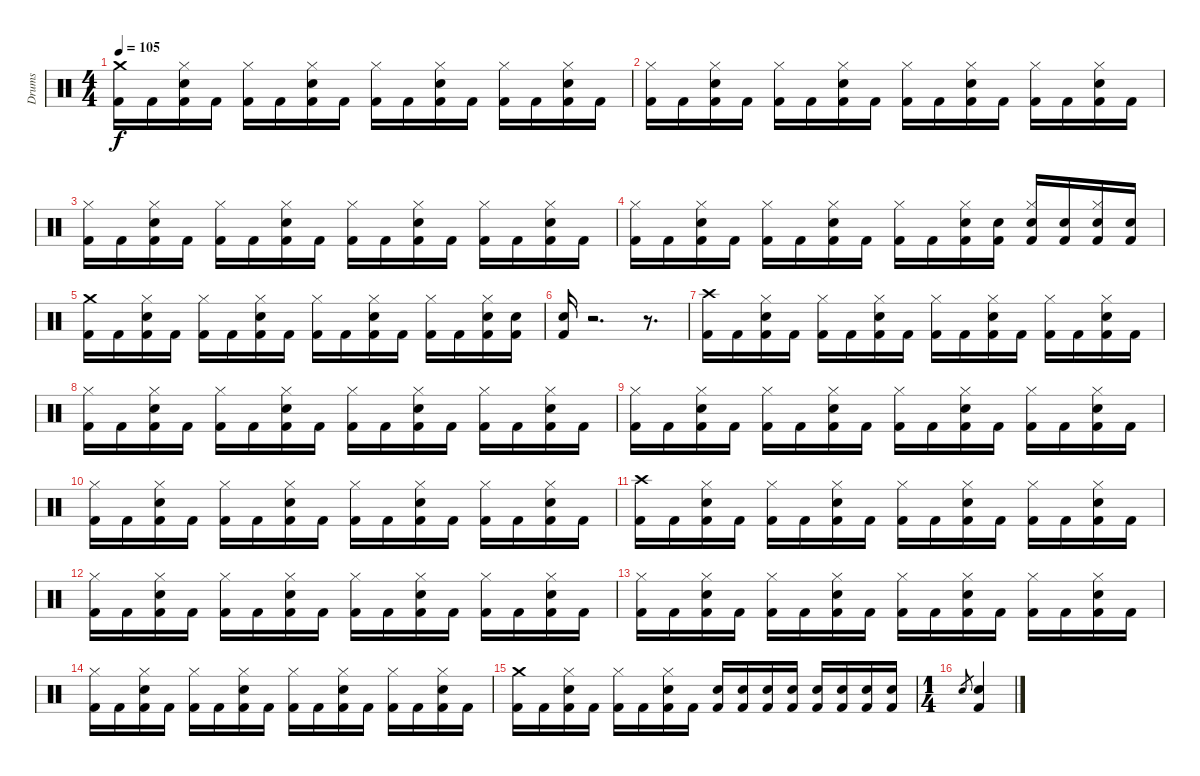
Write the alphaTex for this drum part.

\track ("Drums" "Drums") {instrument percussion}
\staff {score}
\articulation defaults
\ts (4 4)
\tempo 105
\clef neutral
\ks c
("Crash medium (hit)" "Kick (hit) 2").16{dy f} "Kick (hit) 2".16 ("Hi-Hat (closed)" "Electric Snare (hit)" "Kick (hit) 2").16 "Kick (hit) 2".16 ("Hi-Hat (closed)" "Kick (hit) 2").16 "Kick (hit) 2".16 ("Hi-Hat (closed)" "Electric Snare (hit)" "Kick (hit) 2").16 "Kick (hit) 2".16 ("Hi-Hat (closed)" "Kick (hit) 2").16 "Kick (hit) 2".16 ("Hi-Hat (closed)" "Electric Snare (hit)" "Kick (hit) 2").16 "Kick (hit) 2".16 ("Hi-Hat (closed)" "Kick (hit) 2").16 "Kick (hit) 2".16 ("Hi-Hat (closed)" "Electric Snare (hit)" "Kick (hit) 2").16 "Kick (hit) 2".16 |
("Hi-Hat (closed)" "Kick (hit) 2").16 "Kick (hit) 2".16 ("Hi-Hat (closed)" "Electric Snare (hit)" "Kick (hit) 2").16 "Kick (hit) 2".16 ("Hi-Hat (closed)" "Kick (hit) 2").16 "Kick (hit) 2".16 ("Hi-Hat (closed)" "Electric Snare (hit)" "Kick (hit) 2").16 "Kick (hit) 2".16 ("Hi-Hat (closed)" "Kick (hit) 2").16 "Kick (hit) 2".16 ("Hi-Hat (closed)" "Electric Snare (hit)" "Kick (hit) 2").16 "Kick (hit) 2".16 ("Hi-Hat (closed)" "Kick (hit) 2").16 "Kick (hit) 2".16 ("Hi-Hat (closed)" "Electric Snare (hit)" "Kick (hit) 2").16 "Kick (hit) 2".16 |
("Hi-Hat (closed)" "Kick (hit) 2").16 "Kick (hit) 2".16 ("Hi-Hat (closed)" "Electric Snare (hit)" "Kick (hit) 2").16 "Kick (hit) 2".16 ("Hi-Hat (closed)" "Kick (hit) 2").16 "Kick (hit) 2".16 ("Hi-Hat (closed)" "Electric Snare (hit)" "Kick (hit) 2").16 "Kick (hit) 2".16 ("Hi-Hat (closed)" "Kick (hit) 2").16 "Kick (hit) 2".16 ("Hi-Hat (closed)" "Electric Snare (hit)" "Kick (hit) 2").16 "Kick (hit) 2".16 ("Hi-Hat (closed)" "Kick (hit) 2").16 "Kick (hit) 2".16 ("Hi-Hat (closed)" "Electric Snare (hit)" "Kick (hit) 2").16 "Kick (hit) 2".16 |
("Hi-Hat (closed)" "Kick (hit) 2").16 "Kick (hit) 2".16 ("Hi-Hat (closed)" "Electric Snare (hit)" "Kick (hit) 2").16 "Kick (hit) 2".16 ("Hi-Hat (closed)" "Kick (hit) 2").16 "Kick (hit) 2".16 ("Hi-Hat (closed)" "Electric Snare (hit)" "Kick (hit) 2").16 "Kick (hit) 2".16 ("Hi-Hat (closed)" "Kick (hit) 2").16 "Kick (hit) 2".16 ("Hi-Hat (closed)" "Electric Snare (hit)" "Kick (hit) 2").16 ("Electric Snare (hit)" "Kick (hit) 2").16 ("Hi-Hat (closed)" "Electric Snare (hit)" "Kick (hit) 2").16 ("Electric Snare (hit)" "Kick (hit) 2").16 ("Hi-Hat (closed)" "Electric Snare (hit)" "Kick (hit) 2").16 ("Electric Snare (hit)" "Kick (hit) 2").16 |
("Crash medium (hit)" "Kick (hit) 2").16 "Kick (hit) 2".16 ("Hi-Hat (closed)" "Electric Snare (hit)" "Kick (hit) 2").16 "Kick (hit) 2".16 ("Hi-Hat (closed)" "Kick (hit) 2").16 "Kick (hit) 2".16 ("Hi-Hat (closed)" "Electric Snare (hit)" "Kick (hit) 2").16 "Kick (hit) 2".16 ("Hi-Hat (closed)" "Kick (hit) 2").16 "Kick (hit) 2".16 ("Hi-Hat (closed)" "Electric Snare (hit)" "Kick (hit) 2").16 "Kick (hit) 2".16 ("Hi-Hat (closed)" "Kick (hit) 2").16 "Kick (hit) 2".16 ("Hi-Hat (closed)" "Electric Snare (hit)" "Kick (hit) 2").16 ("Electric Snare (hit)" "Kick (hit) 2").16 |
("Electric Snare (hit)" "Kick (hit) 2").16 r.2{d} r.8{d} |
("Crash high (hit)" "Kick (hit) 2").16 "Kick (hit) 2".16 ("Hi-Hat (closed)" "Electric Snare (hit)" "Kick (hit) 2").16 "Kick (hit) 2".16 ("Hi-Hat (closed)" "Kick (hit) 2").16 "Kick (hit) 2".16 ("Hi-Hat (closed)" "Electric Snare (hit)" "Kick (hit) 2").16 "Kick (hit) 2".16 ("Hi-Hat (closed)" "Kick (hit) 2").16 "Kick (hit) 2".16 ("Hi-Hat (closed)" "Electric Snare (hit)" "Kick (hit) 2").16 "Kick (hit) 2".16 ("Hi-Hat (closed)" "Kick (hit) 2").16 "Kick (hit) 2".16 ("Hi-Hat (closed)" "Electric Snare (hit)" "Kick (hit) 2").16 "Kick (hit) 2".16 |
("Hi-Hat (closed)" "Kick (hit) 2").16 "Kick (hit) 2".16 ("Hi-Hat (closed)" "Electric Snare (hit)" "Kick (hit) 2").16 "Kick (hit) 2".16 ("Hi-Hat (closed)" "Kick (hit) 2").16 "Kick (hit) 2".16 ("Hi-Hat (closed)" "Electric Snare (hit)" "Kick (hit) 2").16 "Kick (hit) 2".16 ("Hi-Hat (closed)" "Kick (hit) 2").16 "Kick (hit) 2".16 ("Hi-Hat (closed)" "Electric Snare (hit)" "Kick (hit) 2").16 "Kick (hit) 2".16 ("Hi-Hat (closed)" "Kick (hit) 2").16 "Kick (hit) 2".16 ("Hi-Hat (closed)" "Electric Snare (hit)" "Kick (hit) 2").16 "Kick (hit) 2".16 |
("Hi-Hat (closed)" "Kick (hit) 2").16 "Kick (hit) 2".16 ("Hi-Hat (closed)" "Electric Snare (hit)" "Kick (hit) 2").16 "Kick (hit) 2".16 ("Hi-Hat (closed)" "Kick (hit) 2").16 "Kick (hit) 2".16 ("Hi-Hat (closed)" "Electric Snare (hit)" "Kick (hit) 2").16 "Kick (hit) 2".16 ("Hi-Hat (closed)" "Kick (hit) 2").16 "Kick (hit) 2".16 ("Hi-Hat (closed)" "Electric Snare (hit)" "Kick (hit) 2").16 "Kick (hit) 2".16 ("Hi-Hat (closed)" "Kick (hit) 2").16 "Kick (hit) 2".16 ("Hi-Hat (closed)" "Electric Snare (hit)" "Kick (hit) 2").16 "Kick (hit) 2".16 |
("Hi-Hat (closed)" "Kick (hit) 2").16 "Kick (hit) 2".16 ("Hi-Hat (closed)" "Electric Snare (hit)" "Kick (hit) 2").16 "Kick (hit) 2".16 ("Hi-Hat (closed)" "Kick (hit) 2").16 "Kick (hit) 2".16 ("Hi-Hat (closed)" "Electric Snare (hit)" "Kick (hit) 2").16 "Kick (hit) 2".16 ("Hi-Hat (closed)" "Kick (hit) 2").16 "Kick (hit) 2".16 ("Hi-Hat (closed)" "Electric Snare (hit)" "Kick (hit) 2").16 "Kick (hit) 2".16 ("Hi-Hat (closed)" "Kick (hit) 2").16 "Kick (hit) 2".16 ("Hi-Hat (closed)" "Electric Snare (hit)" "Kick (hit) 2").16 "Kick (hit) 2".16 |
("Crash high (hit)" "Kick (hit) 2").16 "Kick (hit) 2".16 ("Hi-Hat (closed)" "Electric Snare (hit)" "Kick (hit) 2").16 "Kick (hit) 2".16 ("Hi-Hat (closed)" "Kick (hit) 2").16 "Kick (hit) 2".16 ("Hi-Hat (closed)" "Electric Snare (hit)" "Kick (hit) 2").16 "Kick (hit) 2".16 ("Hi-Hat (closed)" "Kick (hit) 2").16 "Kick (hit) 2".16 ("Hi-Hat (closed)" "Electric Snare (hit)" "Kick (hit) 2").16 "Kick (hit) 2".16 ("Hi-Hat (closed)" "Kick (hit) 2").16 "Kick (hit) 2".16 ("Hi-Hat (closed)" "Electric Snare (hit)" "Kick (hit) 2").16 "Kick (hit) 2".16 |
("Hi-Hat (closed)" "Kick (hit) 2").16 "Kick (hit) 2".16 ("Hi-Hat (closed)" "Electric Snare (hit)" "Kick (hit) 2").16 "Kick (hit) 2".16 ("Hi-Hat (closed)" "Kick (hit) 2").16 "Kick (hit) 2".16 ("Hi-Hat (closed)" "Electric Snare (hit)" "Kick (hit) 2").16 "Kick (hit) 2".16 ("Hi-Hat (closed)" "Kick (hit) 2").16 "Kick (hit) 2".16 ("Hi-Hat (closed)" "Electric Snare (hit)" "Kick (hit) 2").16 "Kick (hit) 2".16 ("Hi-Hat (closed)" "Kick (hit) 2").16 "Kick (hit) 2".16 ("Hi-Hat (closed)" "Electric Snare (hit)" "Kick (hit) 2").16 "Kick (hit) 2".16 |
("Hi-Hat (closed)" "Kick (hit) 2").16 "Kick (hit) 2".16 ("Hi-Hat (closed)" "Electric Snare (hit)" "Kick (hit) 2").16 "Kick (hit) 2".16 ("Hi-Hat (closed)" "Kick (hit) 2").16 "Kick (hit) 2".16 ("Hi-Hat (closed)" "Electric Snare (hit)" "Kick (hit) 2").16 "Kick (hit) 2".16 ("Hi-Hat (closed)" "Kick (hit) 2").16 "Kick (hit) 2".16 ("Hi-Hat (closed)" "Electric Snare (hit)" "Kick (hit) 2").16 "Kick (hit) 2".16 ("Hi-Hat (closed)" "Kick (hit) 2").16 "Kick (hit) 2".16 ("Hi-Hat (closed)" "Electric Snare (hit)" "Kick (hit) 2").16 "Kick (hit) 2".16 |
("Hi-Hat (closed)" "Kick (hit) 2").16 "Kick (hit) 2".16 ("Hi-Hat (closed)" "Electric Snare (hit)" "Kick (hit) 2").16 "Kick (hit) 2".16 ("Hi-Hat (closed)" "Kick (hit) 2").16 "Kick (hit) 2".16 ("Hi-Hat (closed)" "Electric Snare (hit)" "Kick (hit) 2").16 "Kick (hit) 2".16 ("Hi-Hat (closed)" "Kick (hit) 2").16 "Kick (hit) 2".16 ("Hi-Hat (closed)" "Electric Snare (hit)" "Kick (hit) 2").16 "Kick (hit) 2".16 ("Hi-Hat (closed)" "Kick (hit) 2").16 "Kick (hit) 2".16 ("Hi-Hat (closed)" "Electric Snare (hit)" "Kick (hit) 2").16 "Kick (hit) 2".16 |
("Crash medium (hit)" "Kick (hit) 2").16 "Kick (hit) 2".16 ("Hi-Hat (closed)" "Electric Snare (hit)" "Kick (hit) 2").16 "Kick (hit) 2".16 ("Hi-Hat (closed)" "Kick (hit) 2").16 "Kick (hit) 2".16 ("Hi-Hat (closed)" "Electric Snare (hit)" "Kick (hit) 2").16 "Kick (hit) 2".16 ("Electric Snare (hit)" "Kick (hit) 2").16 ("Electric Snare (hit)" "Kick (hit) 2").16 ("Electric Snare (hit)" "Kick (hit) 2").16 ("Electric Snare (hit)" "Kick (hit) 2").16 ("Electric Snare (hit)" "Kick (hit) 2").16 ("Electric Snare (hit)" "Kick (hit) 2").16 ("Electric Snare (hit)" "Kick (hit) 2").16 ("Electric Snare (hit)" "Kick (hit) 2").16 |
\ts (1 4)
"Electric Snare (hit)".8{gr} ("Electric Snare (hit)" "Kick (hit) 2").4
